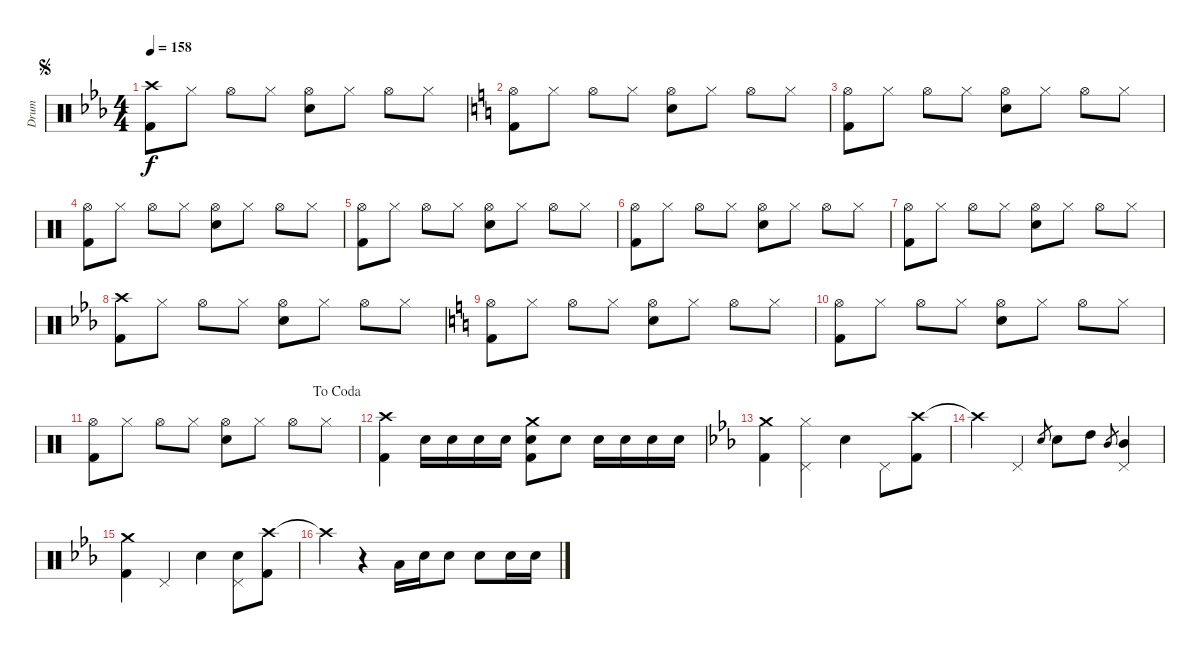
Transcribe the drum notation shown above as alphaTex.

\track ("Drum" "Drum") {instrument percussion}
\staff {score}
\articulation defaults
\ts (4 4)
\jump segno
\tempo 158
\clef neutral
\ks eb
("Crash high (hit)" "Kick (hit) 2").8{dy f} "Hi-Hat (closed)".8 "Hi-Hat (open)".8 "Hi-Hat (closed)".8 ("Hi-Hat (open)" "Electric Snare (hit)").8 "Hi-Hat (closed)".8 "Hi-Hat (open)".8 "Hi-Hat (closed)".8 |
\ks c
("Hi-Hat (open)" "Kick (hit) 2").8 "Hi-Hat (closed)".8 "Hi-Hat (open)".8 "Hi-Hat (closed)".8 ("Hi-Hat (open)" "Electric Snare (hit)").8 "Hi-Hat (closed)".8 "Hi-Hat (open)".8 "Hi-Hat (closed)".8 |
("Hi-Hat (open)" "Kick (hit) 2").8 "Hi-Hat (closed)".8 "Hi-Hat (open)".8 "Hi-Hat (closed)".8 ("Hi-Hat (open)" "Electric Snare (hit)").8 "Hi-Hat (closed)".8 "Hi-Hat (open)".8 "Hi-Hat (closed)".8 |
("Hi-Hat (open)" "Kick (hit) 2").8 "Hi-Hat (closed)".8 "Hi-Hat (open)".8 "Hi-Hat (closed)".8 ("Hi-Hat (open)" "Electric Snare (hit)").8 "Hi-Hat (closed)".8 "Hi-Hat (open)".8 "Hi-Hat (closed)".8 |
("Hi-Hat (open)" "Kick (hit) 2").8 "Hi-Hat (closed)".8 "Hi-Hat (open)".8 "Hi-Hat (closed)".8 ("Hi-Hat (open)" "Electric Snare (hit)").8 "Hi-Hat (closed)".8 "Hi-Hat (open)".8 "Hi-Hat (closed)".8 |
("Hi-Hat (open)" "Kick (hit) 2").8 "Hi-Hat (closed)".8 "Hi-Hat (open)".8 "Hi-Hat (closed)".8 ("Hi-Hat (open)" "Electric Snare (hit)").8 "Hi-Hat (closed)".8 "Hi-Hat (open)".8 "Hi-Hat (closed)".8 |
("Hi-Hat (open)" "Kick (hit) 2").8 "Hi-Hat (closed)".8 "Hi-Hat (open)".8 "Hi-Hat (closed)".8 ("Hi-Hat (open)" "Electric Snare (hit)").8 "Hi-Hat (closed)".8 "Hi-Hat (open)".8 "Hi-Hat (closed)".8 |
\ks eb
("Crash high (hit)" "Kick (hit) 2").8 "Hi-Hat (closed)".8 "Hi-Hat (open)".8 "Hi-Hat (closed)".8 ("Hi-Hat (open)" "Electric Snare (hit)").8 "Hi-Hat (closed)".8 "Hi-Hat (open)".8 "Hi-Hat (closed)".8 |
\ks c
("Hi-Hat (open)" "Kick (hit) 2").8 "Hi-Hat (closed)".8 "Hi-Hat (open)".8 "Hi-Hat (closed)".8 ("Hi-Hat (open)" "Electric Snare (hit)").8 "Hi-Hat (closed)".8 "Hi-Hat (open)".8 "Hi-Hat (closed)".8 |
("Hi-Hat (open)" "Kick (hit) 2").8 "Hi-Hat (closed)".8 "Hi-Hat (open)".8 "Hi-Hat (closed)".8 ("Hi-Hat (open)" "Electric Snare (hit)").8 "Hi-Hat (closed)".8 "Hi-Hat (open)".8 "Hi-Hat (closed)".8 |
\jump dacoda
("Hi-Hat (open)" "Kick (hit) 2").8 "Hi-Hat (closed)".8 "Hi-Hat (open)".8 "Hi-Hat (closed)".8 ("Hi-Hat (open)" "Electric Snare (hit)").8 "Hi-Hat (closed)".8 "Hi-Hat (open)".8 "Hi-Hat (closed)".8 |
("Crash high (hit)" "Kick (hit) 2").4 "Snare (hit) 2".16 "Snare (hit) 2".16 "Snare (hit) 2".16 "Snare (hit) 2".16 ("Crash medium (hit)" "Snare (hit) 2" "Kick (hit) 2").8 "Snare (hit) 2".8 "Snare (hit) 2".16 "Snare (hit) 2".16 "Snare (hit) 2".16 "Snare (hit) 2".16 |
\ks eb
("Crash medium (hit)" "Kick (hit) 2").4 ("Hi-Hat (closed)" "Pedal Hi-Hat (hit)").4 "Electric Snare (hit)".4 "Pedal Hi-Hat (hit)".8 ("Crash high (hit)" "Kick (hit) 2").8 |
"Crash high (hit)"{t}.4 "Pedal Hi-Hat (hit)".4 "Electric Snare (hit)".8{gr} "Electric Snare (hit)".8 "High Tom (hit)".8 "Mid Tom (hit)".8{gr} ("Mid Tom (hit)" "Pedal Hi-Hat (hit)").4 |
("Crash medium (hit)" "Kick (hit) 2").4 "Pedal Hi-Hat (hit)".4 "Electric Snare (hit)".4 ("Electric Snare (hit)" "Pedal Hi-Hat (hit)").8 ("Crash high (hit)" "Kick (hit) 2").8 |
"Crash high (hit)"{t}.4 r.4 "Low Tom (hit)".16 "Electric Snare (hit)".16 "Electric Snare (hit)".8 "Electric Snare (hit)".8 "Electric Snare (hit)".16 "Electric Snare (hit)".16
